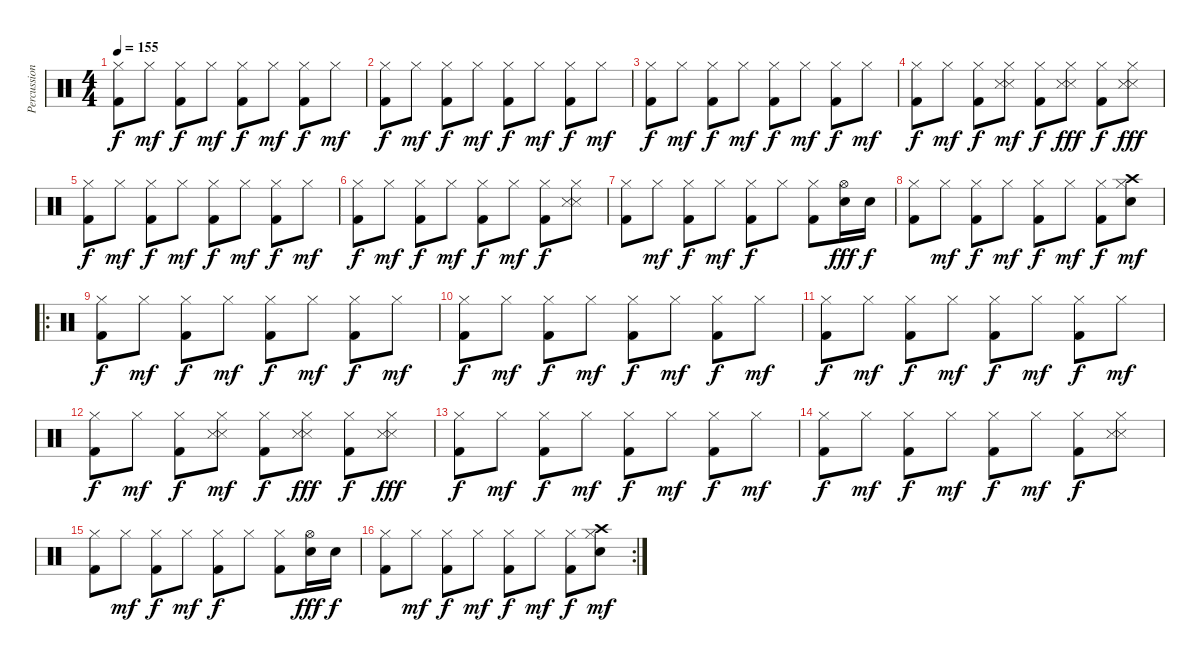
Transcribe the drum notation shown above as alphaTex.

\track ("Percussion" "Percussion") {instrument percussion}
\staff {score}
\articulation defaults
\ts (4 4)
\tempo 155
\clef neutral
\ks c
("Hi-Hat (closed)" "Kick (hit) 2").8{dy f} "Hi-Hat (closed)".8{dy mf} ("Hi-Hat (closed)" "Kick (hit) 2").8{dy f} "Hi-Hat (closed)".8{dy mf} ("Hi-Hat (closed)" "Kick (hit) 2").8{dy f} "Hi-Hat (closed)".8{dy mf} ("Hi-Hat (closed)" "Kick (hit) 2").8{dy f} "Hi-Hat (closed)".8{dy mf} |
("Hi-Hat (closed)" "Kick (hit) 2").8{dy f} "Hi-Hat (closed)".8{dy mf} ("Hi-Hat (closed)" "Kick (hit) 2").8{dy f} "Hi-Hat (closed)".8{dy mf} ("Hi-Hat (closed)" "Kick (hit) 2").8{dy f} "Hi-Hat (closed)".8{dy mf} ("Hi-Hat (closed)" "Kick (hit) 2").8{dy f} "Hi-Hat (closed)".8{dy mf} |
("Hi-Hat (closed)" "Kick (hit) 2").8{dy f} "Hi-Hat (closed)".8{dy mf} ("Hi-Hat (closed)" "Kick (hit) 2").8{dy f} "Hi-Hat (closed)".8{dy mf} ("Hi-Hat (closed)" "Kick (hit) 2").8{dy f} "Hi-Hat (closed)".8{dy mf} ("Hi-Hat (closed)" "Kick (hit) 2").8{dy f} "Hi-Hat (closed)".8{dy mf} |
("Hi-Hat (closed)" "Kick (hit) 2").8{dy f} "Hi-Hat (closed)".8{dy mf} ("Hi-Hat (closed)" "Kick (hit) 2").8{dy f} ("Hi-Hat (closed)" "Snare (side stick) 3" "Snare (side stick) 3").8{dy mf} ("Hi-Hat (closed)" "Kick (hit) 2").8{dy f} ("Hi-Hat (closed)" "Snare (side stick) 3" "Snare (side stick) 3").8{dy fff} ("Hi-Hat (closed)" "Kick (hit) 2").8{dy f} ("Hi-Hat (closed)" "Snare (side stick) 3" "Snare (side stick) 3").8{dy fff} |
("Hi-Hat (closed)" "Kick (hit) 2").8{dy f} "Hi-Hat (closed)".8{dy mf} ("Hi-Hat (closed)" "Kick (hit) 2").8{dy f} "Hi-Hat (closed)".8{dy mf} ("Hi-Hat (closed)" "Kick (hit) 2").8{dy f} "Hi-Hat (closed)".8{dy mf} ("Hi-Hat (closed)" "Kick (hit) 2").8{dy f} "Hi-Hat (closed)".8{dy mf} |
("Hi-Hat (closed)" "Kick (hit) 2").8{dy f} "Hi-Hat (closed)".8{dy mf} ("Hi-Hat (closed)" "Kick (hit) 2").8{dy f} "Hi-Hat (closed)".8{dy mf} ("Hi-Hat (closed)" "Kick (hit) 2").8{dy f} "Hi-Hat (closed)".8{dy mf} ("Hi-Hat (closed)" "Kick (hit) 2").8{dy f} ("Hi-Hat (closed)" "Snare (side stick) 3" "Snare (side stick) 3").8 |
("Hi-Hat (closed)" "Kick (hit) 2").8 "Hi-Hat (closed)".8{dy mf} ("Hi-Hat (closed)" "Kick (hit) 2").8{dy f} "Hi-Hat (closed)".8{dy mf} ("Hi-Hat (closed)" "Kick (hit) 2").8{dy f} "Hi-Hat (closed)".8 ("Hi-Hat (closed)" "Kick (hit) 2").8 ("Hi-Hat (open)" "Snare (hit) 2").16{dy fff} "Snare (hit) 2".16{dy f} |
("Hi-Hat (closed)" "Kick (hit) 2").8 "Hi-Hat (closed)".8{dy mf} ("Hi-Hat (closed)" "Kick (hit) 2").8{dy f} "Hi-Hat (closed)".8{dy mf} ("Hi-Hat (closed)" "Kick (hit) 2").8{dy f} "Hi-Hat (closed)".8{dy mf} ("Hi-Hat (closed)" "Kick (hit) 2").8{dy f} ("Crash high (hit)" "Hi-Hat (closed)" "Snare (hit) 2").8{dy mf} |
\ro
("Hi-Hat (closed)" "Kick (hit) 2").8{dy f} "Hi-Hat (closed)".8{dy mf} ("Hi-Hat (closed)" "Kick (hit) 2").8{dy f} "Hi-Hat (closed)".8{dy mf} ("Hi-Hat (closed)" "Kick (hit) 2").8{dy f} "Hi-Hat (closed)".8{dy mf} ("Hi-Hat (closed)" "Kick (hit) 2").8{dy f} "Hi-Hat (closed)".8{dy mf} |
("Hi-Hat (closed)" "Kick (hit) 2").8{dy f} "Hi-Hat (closed)".8{dy mf} ("Hi-Hat (closed)" "Kick (hit) 2").8{dy f} "Hi-Hat (closed)".8{dy mf} ("Hi-Hat (closed)" "Kick (hit) 2").8{dy f} "Hi-Hat (closed)".8{dy mf} ("Hi-Hat (closed)" "Kick (hit) 2").8{dy f} "Hi-Hat (closed)".8{dy mf} |
("Hi-Hat (closed)" "Kick (hit) 2").8{dy f} "Hi-Hat (closed)".8{dy mf} ("Hi-Hat (closed)" "Kick (hit) 2").8{dy f} "Hi-Hat (closed)".8{dy mf} ("Hi-Hat (closed)" "Kick (hit) 2").8{dy f} "Hi-Hat (closed)".8{dy mf} ("Hi-Hat (closed)" "Kick (hit) 2").8{dy f} "Hi-Hat (closed)".8{dy mf} |
("Hi-Hat (closed)" "Kick (hit) 2").8{dy f} "Hi-Hat (closed)".8{dy mf} ("Hi-Hat (closed)" "Kick (hit) 2").8{dy f} ("Hi-Hat (closed)" "Snare (side stick) 3" "Snare (side stick) 3").8{dy mf} ("Hi-Hat (closed)" "Kick (hit) 2").8{dy f} ("Hi-Hat (closed)" "Snare (side stick) 3" "Snare (side stick) 3").8{dy fff} ("Hi-Hat (closed)" "Kick (hit) 2").8{dy f} ("Hi-Hat (closed)" "Snare (side stick) 3" "Snare (side stick) 3").8{dy fff} |
("Hi-Hat (closed)" "Kick (hit) 2").8{dy f} "Hi-Hat (closed)".8{dy mf} ("Hi-Hat (closed)" "Kick (hit) 2").8{dy f} "Hi-Hat (closed)".8{dy mf} ("Hi-Hat (closed)" "Kick (hit) 2").8{dy f} "Hi-Hat (closed)".8{dy mf} ("Hi-Hat (closed)" "Kick (hit) 2").8{dy f} "Hi-Hat (closed)".8{dy mf} |
("Hi-Hat (closed)" "Kick (hit) 2").8{dy f} "Hi-Hat (closed)".8{dy mf} ("Hi-Hat (closed)" "Kick (hit) 2").8{dy f} "Hi-Hat (closed)".8{dy mf} ("Hi-Hat (closed)" "Kick (hit) 2").8{dy f} "Hi-Hat (closed)".8{dy mf} ("Hi-Hat (closed)" "Kick (hit) 2").8{dy f} ("Hi-Hat (closed)" "Snare (side stick) 3" "Snare (side stick) 3").8 |
("Hi-Hat (closed)" "Kick (hit) 2").8 "Hi-Hat (closed)".8{dy mf} ("Hi-Hat (closed)" "Kick (hit) 2").8{dy f} "Hi-Hat (closed)".8{dy mf} ("Hi-Hat (closed)" "Kick (hit) 2").8{dy f} "Hi-Hat (closed)".8 ("Hi-Hat (closed)" "Kick (hit) 2").8 ("Hi-Hat (open)" "Snare (hit) 2").16{dy fff} "Snare (hit) 2".16{dy f} |
\rc 2
("Hi-Hat (closed)" "Kick (hit) 2").8 "Hi-Hat (closed)".8{dy mf} ("Hi-Hat (closed)" "Kick (hit) 2").8{dy f} "Hi-Hat (closed)".8{dy mf} ("Hi-Hat (closed)" "Kick (hit) 2").8{dy f} "Hi-Hat (closed)".8{dy mf} ("Hi-Hat (closed)" "Kick (hit) 2").8{dy f} ("Crash high (hit)" "Hi-Hat (closed)" "Snare (hit) 2").8{dy mf}
